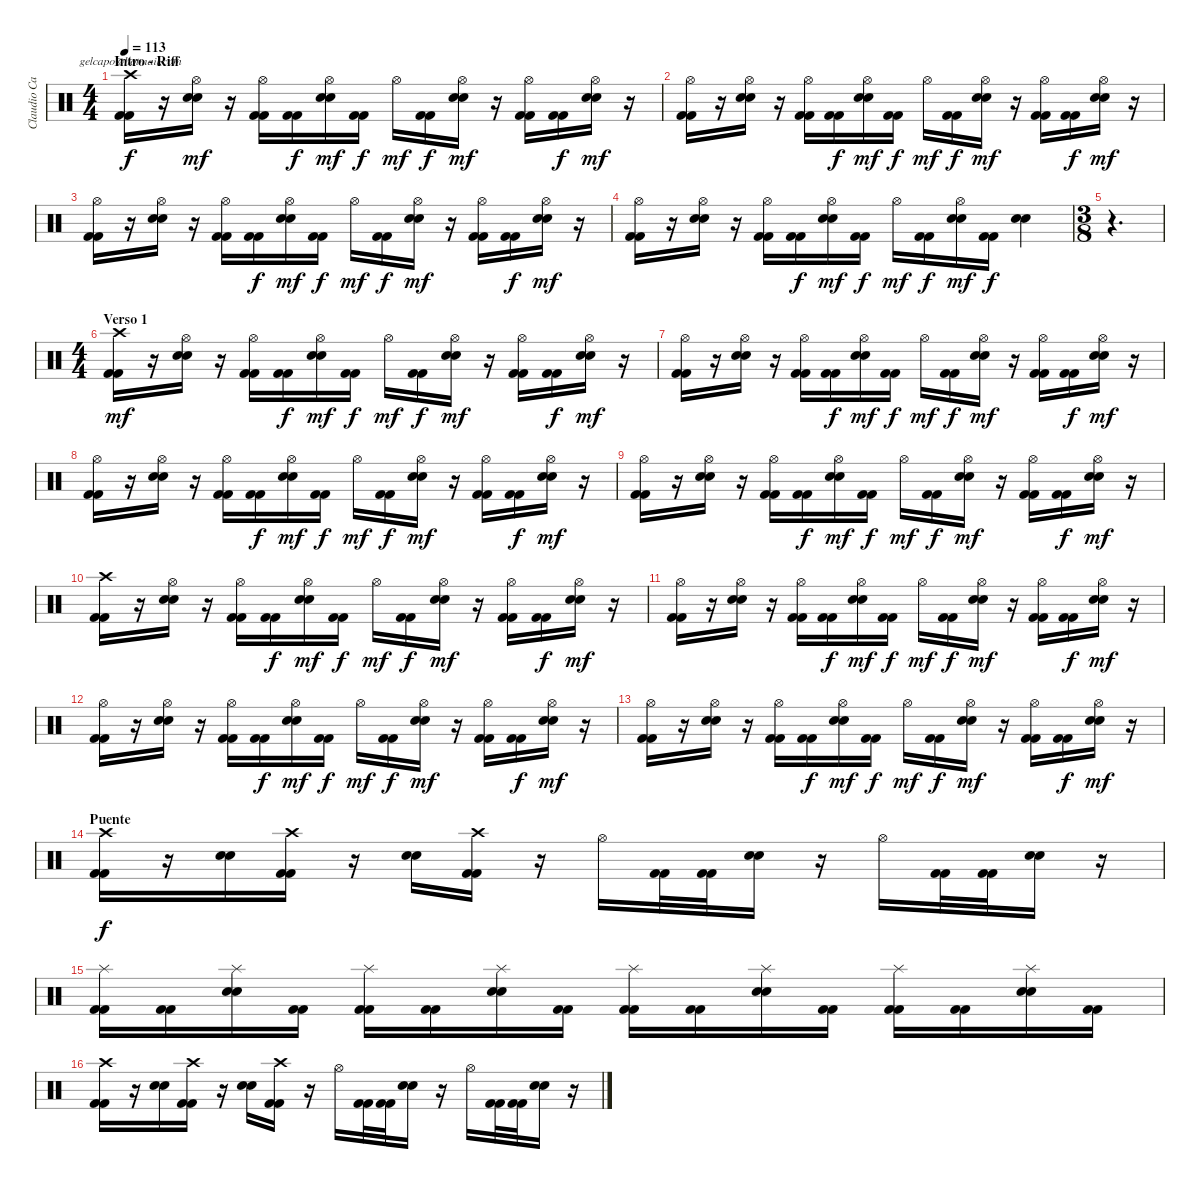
\track ("Claudio Cardaci (bateria)" "Claudio Ca") {instrument percussion}
\staff {score}
\articulation defaults
\chord ("gelcapo@hotmail.com") {firstfret 0}
\ts (4 4)
\section ("" "Intro - Riff")
\tempo 113
\clef neutral
\ks c
("Crash high (hit)" "Kick (hit) 2" "Kick (hit) 2").16{ch "gelcapo@hotmail.com" dy f} r.16 ("Hi-Hat (open)" "Snare (hit) 2" "Snare (hit) 2").16{dy mf} r.16 ("Hi-Hat (open)" "Kick (hit) 2" "Kick (hit) 2").16 ("Kick (hit) 2" "Kick (hit) 2").16{dy f} ("Hi-Hat (open)" "Snare (hit) 2" "Snare (hit) 2").16{dy mf} ("Kick (hit) 2" "Kick (hit) 2").16{dy f} "Hi-Hat (open)".16{dy mf} ("Kick (hit) 2" "Kick (hit) 2").16{dy f} ("Hi-Hat (open)" "Snare (hit) 2" "Snare (hit) 2").16{dy mf} r.16 ("Hi-Hat (open)" "Kick (hit) 2" "Kick (hit) 2").16 ("Kick (hit) 2" "Kick (hit) 2").16{dy f} ("Hi-Hat (open)" "Snare (hit) 2" "Snare (hit) 2").16{dy mf} r.16 |
("Hi-Hat (open)" "Kick (hit) 2" "Kick (hit) 2").16 r.16 ("Hi-Hat (open)" "Snare (hit) 2" "Snare (hit) 2").16 r.16 ("Hi-Hat (open)" "Kick (hit) 2" "Kick (hit) 2").16 ("Kick (hit) 2" "Kick (hit) 2").16{dy f} ("Hi-Hat (open)" "Snare (hit) 2" "Snare (hit) 2").16{dy mf} ("Kick (hit) 2" "Kick (hit) 2").16{dy f} "Hi-Hat (open)".16{dy mf} ("Kick (hit) 2" "Kick (hit) 2").16{dy f} ("Hi-Hat (open)" "Snare (hit) 2" "Snare (hit) 2").16{dy mf} r.16 ("Hi-Hat (open)" "Kick (hit) 2" "Kick (hit) 2").16 ("Kick (hit) 2" "Kick (hit) 2").16{dy f} ("Hi-Hat (open)" "Snare (hit) 2" "Snare (hit) 2").16{dy mf} r.16 |
("Hi-Hat (open)" "Kick (hit) 2" "Kick (hit) 2").16 r.16 ("Hi-Hat (open)" "Snare (hit) 2" "Snare (hit) 2").16 r.16 ("Hi-Hat (open)" "Kick (hit) 2" "Kick (hit) 2").16 ("Kick (hit) 2" "Kick (hit) 2").16{dy f} ("Hi-Hat (open)" "Snare (hit) 2" "Snare (hit) 2").16{dy mf} ("Kick (hit) 2" "Kick (hit) 2").16{dy f} "Hi-Hat (open)".16{dy mf} ("Kick (hit) 2" "Kick (hit) 2").16{dy f} ("Hi-Hat (open)" "Snare (hit) 2" "Snare (hit) 2").16{dy mf} r.16 ("Hi-Hat (open)" "Kick (hit) 2" "Kick (hit) 2").16 ("Kick (hit) 2" "Kick (hit) 2").16{dy f} ("Hi-Hat (open)" "Snare (hit) 2" "Snare (hit) 2").16{dy mf} r.16 |
("Hi-Hat (open)" "Kick (hit) 2" "Kick (hit) 2").16 r.16 ("Hi-Hat (open)" "Snare (hit) 2" "Snare (hit) 2").16 r.16 ("Hi-Hat (open)" "Kick (hit) 2" "Kick (hit) 2").16 ("Kick (hit) 2" "Kick (hit) 2").16{dy f} ("Hi-Hat (open)" "Snare (hit) 2" "Snare (hit) 2").16{dy mf} ("Kick (hit) 2" "Kick (hit) 2").16{dy f} "Hi-Hat (open)".16{dy mf} ("Kick (hit) 2" "Kick (hit) 2").16{dy f} ("Hi-Hat (open)" "Snare (hit) 2" "Snare (hit) 2").16{dy mf} ("Kick (hit) 2" "Kick (hit) 2").16{dy f} ("Snare (hit) 2" "Snare (hit) 2").4 |
\ts (3 8)
r.4{d} |
\ts (4 4)
\section ("" "Verso 1")
("Crash high (hit)" "Kick (hit) 2" "Kick (hit) 2").16{dy mf} r.16 ("Hi-Hat (open)" "Snare (hit) 2" "Snare (hit) 2").16 r.16 ("Hi-Hat (open)" "Kick (hit) 2" "Kick (hit) 2").16 ("Kick (hit) 2" "Kick (hit) 2").16{dy f} ("Hi-Hat (open)" "Snare (hit) 2" "Snare (hit) 2").16{dy mf} ("Kick (hit) 2" "Kick (hit) 2").16{dy f} "Hi-Hat (open)".16{dy mf} ("Kick (hit) 2" "Kick (hit) 2").16{dy f} ("Hi-Hat (open)" "Snare (hit) 2" "Snare (hit) 2").16{dy mf} r.16 ("Hi-Hat (open)" "Kick (hit) 2" "Kick (hit) 2").16 ("Kick (hit) 2" "Kick (hit) 2").16{dy f} ("Hi-Hat (open)" "Snare (hit) 2" "Snare (hit) 2").16{dy mf} r.16 |
("Hi-Hat (open)" "Kick (hit) 2" "Kick (hit) 2").16 r.16 ("Hi-Hat (open)" "Snare (hit) 2" "Snare (hit) 2").16 r.16 ("Hi-Hat (open)" "Kick (hit) 2" "Kick (hit) 2").16 ("Kick (hit) 2" "Kick (hit) 2").16{dy f} ("Hi-Hat (open)" "Snare (hit) 2" "Snare (hit) 2").16{dy mf} ("Kick (hit) 2" "Kick (hit) 2").16{dy f} "Hi-Hat (open)".16{dy mf} ("Kick (hit) 2" "Kick (hit) 2").16{dy f} ("Hi-Hat (open)" "Snare (hit) 2" "Snare (hit) 2").16{dy mf} r.16 ("Hi-Hat (open)" "Kick (hit) 2" "Kick (hit) 2").16 ("Kick (hit) 2" "Kick (hit) 2").16{dy f} ("Hi-Hat (open)" "Snare (hit) 2" "Snare (hit) 2").16{dy mf} r.16 |
("Hi-Hat (open)" "Kick (hit) 2" "Kick (hit) 2").16 r.16 ("Hi-Hat (open)" "Snare (hit) 2" "Snare (hit) 2").16 r.16 ("Hi-Hat (open)" "Kick (hit) 2" "Kick (hit) 2").16 ("Kick (hit) 2" "Kick (hit) 2").16{dy f} ("Hi-Hat (open)" "Snare (hit) 2" "Snare (hit) 2").16{dy mf} ("Kick (hit) 2" "Kick (hit) 2").16{dy f} "Hi-Hat (open)".16{dy mf} ("Kick (hit) 2" "Kick (hit) 2").16{dy f} ("Hi-Hat (open)" "Snare (hit) 2" "Snare (hit) 2").16{dy mf} r.16 ("Hi-Hat (open)" "Kick (hit) 2" "Kick (hit) 2").16 ("Kick (hit) 2" "Kick (hit) 2").16{dy f} ("Hi-Hat (open)" "Snare (hit) 2" "Snare (hit) 2").16{dy mf} r.16 |
("Hi-Hat (open)" "Kick (hit) 2" "Kick (hit) 2").16 r.16 ("Hi-Hat (open)" "Snare (hit) 2" "Snare (hit) 2").16 r.16 ("Hi-Hat (open)" "Kick (hit) 2" "Kick (hit) 2").16 ("Kick (hit) 2" "Kick (hit) 2").16{dy f} ("Hi-Hat (open)" "Snare (hit) 2" "Snare (hit) 2").16{dy mf} ("Kick (hit) 2" "Kick (hit) 2").16{dy f} "Hi-Hat (open)".16{dy mf} ("Kick (hit) 2" "Kick (hit) 2").16{dy f} ("Hi-Hat (open)" "Snare (hit) 2" "Snare (hit) 2").16{dy mf} r.16 ("Hi-Hat (open)" "Kick (hit) 2" "Kick (hit) 2").16 ("Kick (hit) 2" "Kick (hit) 2").16{dy f} ("Hi-Hat (open)" "Snare (hit) 2" "Snare (hit) 2").16{dy mf} r.16 |
("Crash high (hit)" "Kick (hit) 2" "Kick (hit) 2").16 r.16 ("Hi-Hat (open)" "Snare (hit) 2" "Snare (hit) 2").16 r.16 ("Hi-Hat (open)" "Kick (hit) 2" "Kick (hit) 2").16 ("Kick (hit) 2" "Kick (hit) 2").16{dy f} ("Hi-Hat (open)" "Snare (hit) 2" "Snare (hit) 2").16{dy mf} ("Kick (hit) 2" "Kick (hit) 2").16{dy f} "Hi-Hat (open)".16{dy mf} ("Kick (hit) 2" "Kick (hit) 2").16{dy f} ("Hi-Hat (open)" "Snare (hit) 2" "Snare (hit) 2").16{dy mf} r.16 ("Hi-Hat (open)" "Kick (hit) 2" "Kick (hit) 2").16 ("Kick (hit) 2" "Kick (hit) 2").16{dy f} ("Hi-Hat (open)" "Snare (hit) 2" "Snare (hit) 2").16{dy mf} r.16 |
("Hi-Hat (open)" "Kick (hit) 2" "Kick (hit) 2").16 r.16 ("Hi-Hat (open)" "Snare (hit) 2" "Snare (hit) 2").16 r.16 ("Hi-Hat (open)" "Kick (hit) 2" "Kick (hit) 2").16 ("Kick (hit) 2" "Kick (hit) 2").16{dy f} ("Hi-Hat (open)" "Snare (hit) 2" "Snare (hit) 2").16{dy mf} ("Kick (hit) 2" "Kick (hit) 2").16{dy f} "Hi-Hat (open)".16{dy mf} ("Kick (hit) 2" "Kick (hit) 2").16{dy f} ("Hi-Hat (open)" "Snare (hit) 2" "Snare (hit) 2").16{dy mf} r.16 ("Hi-Hat (open)" "Kick (hit) 2" "Kick (hit) 2").16 ("Kick (hit) 2" "Kick (hit) 2").16{dy f} ("Hi-Hat (open)" "Snare (hit) 2" "Snare (hit) 2").16{dy mf} r.16 |
("Hi-Hat (open)" "Kick (hit) 2" "Kick (hit) 2").16 r.16 ("Hi-Hat (open)" "Snare (hit) 2" "Snare (hit) 2").16 r.16 ("Hi-Hat (open)" "Kick (hit) 2" "Kick (hit) 2").16 ("Kick (hit) 2" "Kick (hit) 2").16{dy f} ("Hi-Hat (open)" "Snare (hit) 2" "Snare (hit) 2").16{dy mf} ("Kick (hit) 2" "Kick (hit) 2").16{dy f} "Hi-Hat (open)".16{dy mf} ("Kick (hit) 2" "Kick (hit) 2").16{dy f} ("Hi-Hat (open)" "Snare (hit) 2" "Snare (hit) 2").16{dy mf} r.16 ("Hi-Hat (open)" "Kick (hit) 2" "Kick (hit) 2").16 ("Kick (hit) 2" "Kick (hit) 2").16{dy f} ("Hi-Hat (open)" "Snare (hit) 2" "Snare (hit) 2").16{dy mf} r.16 |
("Hi-Hat (open)" "Kick (hit) 2" "Kick (hit) 2").16 r.16 ("Hi-Hat (open)" "Snare (hit) 2" "Snare (hit) 2").16 r.16 ("Hi-Hat (open)" "Kick (hit) 2" "Kick (hit) 2").16 ("Kick (hit) 2" "Kick (hit) 2").16{dy f} ("Hi-Hat (open)" "Snare (hit) 2" "Snare (hit) 2").16{dy mf} ("Kick (hit) 2" "Kick (hit) 2").16{dy f} "Hi-Hat (open)".16{dy mf} ("Kick (hit) 2" "Kick (hit) 2").16{dy f} ("Hi-Hat (open)" "Snare (hit) 2" "Snare (hit) 2").16{dy mf} r.16 ("Hi-Hat (open)" "Kick (hit) 2" "Kick (hit) 2").16 ("Kick (hit) 2" "Kick (hit) 2").16{dy f} ("Hi-Hat (open)" "Snare (hit) 2" "Snare (hit) 2").16{dy mf} r.16 |
\section ("" "Puente")
("Crash high (hit)" "Kick (hit) 2" "Kick (hit) 2").16{dy f} r.16 ("Snare (hit) 2" "Snare (hit) 2").16 ("Crash high (hit)" "Kick (hit) 2" "Kick (hit) 2").16 r.16 ("Snare (hit) 2" "Snare (hit) 2").16 ("Crash high (hit)" "Kick (hit) 2" "Kick (hit) 2").16 r.16 "Hi-Hat (open)".16 ("Kick (hit) 2" "Kick (hit) 2").32 ("Kick (hit) 2" "Kick (hit) 2").32 ("Snare (hit) 2" "Snare (hit) 2").16 r.16 "Hi-Hat (open)".16 ("Kick (hit) 2" "Kick (hit) 2").32 ("Kick (hit) 2" "Kick (hit) 2").32 ("Snare (hit) 2" "Snare (hit) 2").16 r.16 |
("Splash (hit)" "Kick (hit) 2" "Kick (hit) 2").16 ("Kick (hit) 2" "Kick (hit) 2").16 ("Splash (hit)" "Snare (hit) 2" "Snare (hit) 2").16 ("Kick (hit) 2" "Kick (hit) 2").16 ("Splash (hit)" "Kick (hit) 2" "Kick (hit) 2").16 ("Kick (hit) 2" "Kick (hit) 2").16 ("Splash (hit)" "Snare (hit) 2" "Snare (hit) 2").16 ("Kick (hit) 2" "Kick (hit) 2").16 ("Splash (hit)" "Kick (hit) 2" "Kick (hit) 2").16 ("Kick (hit) 2" "Kick (hit) 2").16 ("Splash (hit)" "Snare (hit) 2" "Snare (hit) 2").16 ("Kick (hit) 2" "Kick (hit) 2").16 ("Splash (hit)" "Kick (hit) 2" "Kick (hit) 2").16 ("Kick (hit) 2" "Kick (hit) 2").16 ("Splash (hit)" "Snare (hit) 2" "Snare (hit) 2").16 ("Kick (hit) 2" "Kick (hit) 2").16 |
("Crash high (hit)" "Kick (hit) 2" "Kick (hit) 2").16 r.16 ("Snare (hit) 2" "Snare (hit) 2").16 ("Crash high (hit)" "Kick (hit) 2" "Kick (hit) 2").16 r.16 ("Snare (hit) 2" "Snare (hit) 2").16 ("Crash high (hit)" "Kick (hit) 2" "Kick (hit) 2").16 r.16 "Hi-Hat (open)".16 ("Kick (hit) 2" "Kick (hit) 2").32 ("Kick (hit) 2" "Kick (hit) 2").32 ("Snare (hit) 2" "Snare (hit) 2").16 r.16 "Hi-Hat (open)".16 ("Kick (hit) 2" "Kick (hit) 2").32 ("Kick (hit) 2" "Kick (hit) 2").32 ("Snare (hit) 2" "Snare (hit) 2").16 r.16
